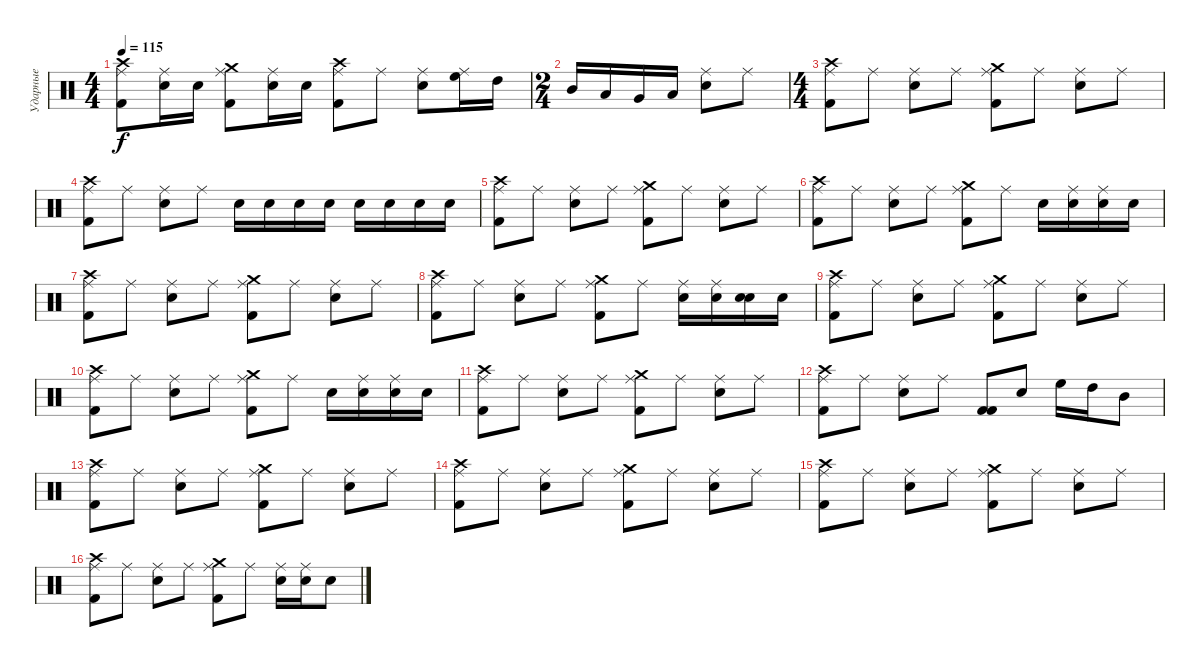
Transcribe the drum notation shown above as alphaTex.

\track ("Ударные" "Ударные") {instrument percussion}
\staff {score}
\articulation defaults
\ts (4 4)
\tempo 115
\clef neutral
\ks c
("Kick (hit) 2" "Crash high (hit)" "Ride (middle)").8{dy f} ("Electric Snare (hit)" "Ride (middle)").16 "Electric Snare (hit)".16 ("Kick (hit) 2" "Crash medium (hit)" "Ride (middle)").8 ("Electric Snare (hit)" "Ride (middle)").16 "Electric Snare (hit)".16 ("Kick (hit) 2" "Crash high (hit)" "Ride (middle)").8 "Ride (middle)".8 ("Electric Snare (hit)" "Ride (middle)").8 ("High Floor Tom (hit)" "Ride (middle)").16 "High Tom (hit)".16 |
\ts (2 4)
"Mid Tom (hit)".16 "Low Tom (hit)".16 "Very Low Tom (hit)".16 "Low Floor Tom (hit)".16 ("Electric Snare (hit)" "Ride (middle)").8 "Ride (middle)".8 |
\ts (4 4)
("Kick (hit) 2" "Crash high (hit)" "Ride (middle)").8 "Ride (middle)".8 ("Electric Snare (hit)" "Ride (middle)").8 "Ride (middle)".8 ("Kick (hit) 2" "Crash medium (hit)" "Ride (middle)").8 "Ride (middle)".8 ("Electric Snare (hit)" "Ride (middle)").8 "Ride (middle)".8 |
("Kick (hit) 2" "Crash high (hit)" "Ride (middle)").8 "Ride (middle)".8 ("Electric Snare (hit)" "Ride (middle)").8 "Ride (middle)".8 "Electric Snare (hit)".16 "Electric Snare (hit)".16 "Electric Snare (hit)".16 "Electric Snare (hit)".16 "Electric Snare (hit)".16 "Electric Snare (hit)".16 "Electric Snare (hit)".16 "Electric Snare (hit)".16 |
("Kick (hit) 2" "Crash high (hit)" "Ride (middle)").8 "Ride (middle)".8 ("Electric Snare (hit)" "Ride (middle)").8 "Ride (middle)".8 ("Kick (hit) 2" "Crash medium (hit)" "Ride (middle)").8 "Ride (middle)".8 ("Electric Snare (hit)" "Ride (middle)").8 "Ride (middle)".8 |
("Kick (hit) 2" "Crash high (hit)" "Ride (middle)").8 "Ride (middle)".8 ("Electric Snare (hit)" "Ride (middle)").8 "Ride (middle)".8 ("Kick (hit) 2" "Crash medium (hit)" "Ride (middle)").8 "Ride (middle)".8 "Electric Snare (hit)".16 ("Electric Snare (hit)" "Ride (middle)").16 ("Electric Snare (hit)" "Ride (middle)").16 "Electric Snare (hit)".16 |
("Kick (hit) 2" "Crash high (hit)" "Ride (middle)").8 "Ride (middle)".8 ("Electric Snare (hit)" "Ride (middle)").8 "Ride (middle)".8 ("Kick (hit) 2" "Crash medium (hit)" "Ride (middle)").8 "Ride (middle)".8 ("Electric Snare (hit)" "Ride (middle)").8 "Ride (middle)".8 |
("Kick (hit) 2" "Crash high (hit)" "Ride (middle)").8 "Ride (middle)".8 ("Electric Snare (hit)" "Ride (middle)").8 "Ride (middle)".8 ("Kick (hit) 2" "Crash medium (hit)" "Ride (middle)").8 "Ride (middle)".8 ("Electric Snare (hit)" "Ride (middle)").16 ("Electric Snare (hit)" "Ride (middle)").16 ("Snare (hit)" "Electric Snare (hit)").16 "Electric Snare (hit)".16 |
("Kick (hit) 2" "Crash high (hit)" "Ride (middle)").8 "Ride (middle)".8 ("Electric Snare (hit)" "Ride (middle)").8 "Ride (middle)".8 ("Kick (hit) 2" "Crash medium (hit)" "Ride (middle)").8 "Ride (middle)".8 ("Electric Snare (hit)" "Ride (middle)").8 "Ride (middle)".8 |
("Kick (hit) 2" "Crash high (hit)" "Ride (middle)").8 "Ride (middle)".8 ("Electric Snare (hit)" "Ride (middle)").8 "Ride (middle)".8 ("Kick (hit) 2" "Crash medium (hit)" "Ride (middle)").8 "Ride (middle)".8 "Electric Snare (hit)".16 ("Electric Snare (hit)" "Ride (middle)").16 ("Electric Snare (hit)" "Ride (middle)").16 "Electric Snare (hit)".16 |
("Kick (hit) 2" "Crash high (hit)" "Ride (middle)").8 "Ride (middle)".8 ("Electric Snare (hit)" "Ride (middle)").8 "Ride (middle)".8 ("Kick (hit) 2" "Crash medium (hit)" "Ride (middle)").8 "Ride (middle)".8 ("Electric Snare (hit)" "Ride (middle)").8 "Ride (middle)".8 |
("Kick (hit) 2" "Crash high (hit)" "Ride (middle)").8 "Ride (middle)".8 ("Electric Snare (hit)" "Ride (middle)").8 "Ride (middle)".8 ("Kick (hit) 2" "Kick (hit) 2").8 "Electric Snare (hit)".8 "High Floor Tom (hit)".16 "High Tom (hit)".16 "Mid Tom (hit)".8 |
("Kick (hit) 2" "Crash high (hit)" "Ride (middle)").8 "Ride (middle)".8 ("Electric Snare (hit)" "Ride (middle)").8 "Ride (middle)".8 ("Kick (hit) 2" "Crash medium (hit)" "Ride (middle)").8 "Ride (middle)".8 ("Electric Snare (hit)" "Ride (middle)").8 "Ride (middle)".8 |
("Kick (hit) 2" "Crash high (hit)" "Ride (middle)").8 "Ride (middle)".8 ("Electric Snare (hit)" "Ride (middle)").8 "Ride (middle)".8 ("Kick (hit) 2" "Crash medium (hit)" "Ride (middle)").8 "Ride (middle)".8 ("Electric Snare (hit)" "Ride (middle)").8 "Ride (middle)".8 |
("Kick (hit) 2" "Crash high (hit)" "Ride (middle)").8 "Ride (middle)".8 ("Electric Snare (hit)" "Ride (middle)").8 "Ride (middle)".8 ("Kick (hit) 2" "Crash medium (hit)" "Ride (middle)").8 "Ride (middle)".8 ("Electric Snare (hit)" "Ride (middle)").8 "Ride (middle)".8 |
("Kick (hit) 2" "Crash high (hit)" "Ride (middle)").8 "Ride (middle)".8 ("Electric Snare (hit)" "Ride (middle)").8 "Ride (middle)".8 ("Kick (hit) 2" "Crash medium (hit)" "Ride (middle)").8 "Ride (middle)".8 ("Electric Snare (hit)" "Ride (middle)").16 ("Electric Snare (hit)" "Ride (middle)").16 "Electric Snare (hit)".8
